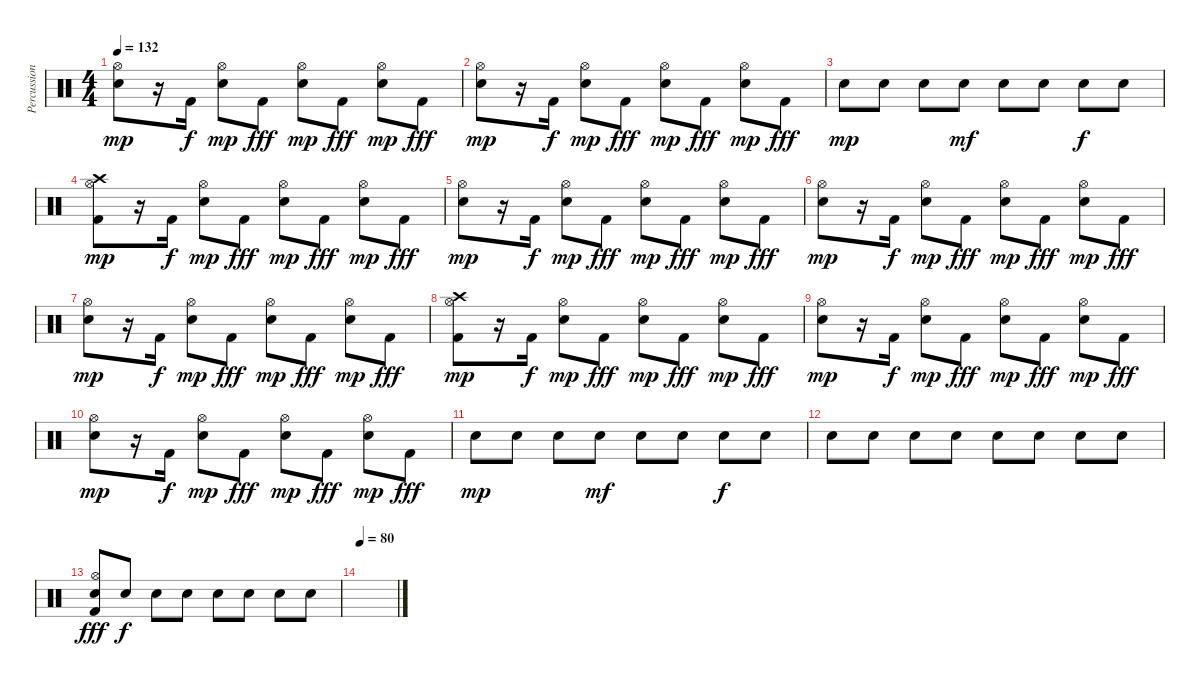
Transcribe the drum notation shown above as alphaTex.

\track ("Percussion" "Percussion") {instrument percussion}
\staff {score}
\articulation defaults
\ts (4 4)
\tempo 132
\clef neutral
\ks c
("Electric Snare (hit)" "Hi-Hat (open)").8{dy mp} r.16 "Kick (hit) 2".16{dy f} ("Electric Snare (hit)" "Hi-Hat (open)").8{dy mp} "Kick (hit) 2".8{dy fff} ("Electric Snare (hit)" "Hi-Hat (open)").8{dy mp} "Kick (hit) 2".8{dy fff} ("Electric Snare (hit)" "Hi-Hat (open)").8{dy mp} "Kick (hit) 2".8{dy fff} |
("Electric Snare (hit)" "Hi-Hat (open)").8{dy mp} r.16 "Kick (hit) 2".16{dy f} ("Electric Snare (hit)" "Hi-Hat (open)").8{dy mp} "Kick (hit) 2".8{dy fff} ("Electric Snare (hit)" "Hi-Hat (open)").8{dy mp} "Kick (hit) 2".8{dy fff} ("Electric Snare (hit)" "Hi-Hat (open)").8{dy mp} "Kick (hit) 2".8{dy fff} |
"Electric Snare (hit)".8{dy mp} "Electric Snare (hit)".8 "Electric Snare (hit)".8 "Electric Snare (hit)".8{dy mf} "Electric Snare (hit)".8 "Electric Snare (hit)".8 "Electric Snare (hit)".8{dy f} "Electric Snare (hit)".8 |
("Kick (hit) 2" "Hi-Hat (open)" "Crash high (hit)").8{dy mp} r.16 "Kick (hit) 2".16{dy f} ("Electric Snare (hit)" "Hi-Hat (open)").8{dy mp} "Kick (hit) 2".8{dy fff} ("Electric Snare (hit)" "Hi-Hat (open)").8{dy mp} "Kick (hit) 2".8{dy fff} ("Electric Snare (hit)" "Hi-Hat (open)").8{dy mp} "Kick (hit) 2".8{dy fff} |
("Electric Snare (hit)" "Hi-Hat (open)").8{dy mp} r.16 "Kick (hit) 2".16{dy f} ("Electric Snare (hit)" "Hi-Hat (open)").8{dy mp} "Kick (hit) 2".8{dy fff} ("Electric Snare (hit)" "Hi-Hat (open)").8{dy mp} "Kick (hit) 2".8{dy fff} ("Electric Snare (hit)" "Hi-Hat (open)").8{dy mp} "Kick (hit) 2".8{dy fff} |
("Electric Snare (hit)" "Hi-Hat (open)").8{dy mp} r.16 "Kick (hit) 2".16{dy f} ("Electric Snare (hit)" "Hi-Hat (open)").8{dy mp} "Kick (hit) 2".8{dy fff} ("Electric Snare (hit)" "Hi-Hat (open)").8{dy mp} "Kick (hit) 2".8{dy fff} ("Electric Snare (hit)" "Hi-Hat (open)").8{dy mp} "Kick (hit) 2".8{dy fff} |
("Electric Snare (hit)" "Hi-Hat (open)").8{dy mp} r.16 "Kick (hit) 2".16{dy f} ("Electric Snare (hit)" "Hi-Hat (open)").8{dy mp} "Kick (hit) 2".8{dy fff} ("Electric Snare (hit)" "Hi-Hat (open)").8{dy mp} "Kick (hit) 2".8{dy fff} ("Electric Snare (hit)" "Hi-Hat (open)").8{dy mp} "Kick (hit) 2".8{dy fff} |
("Kick (hit) 2" "Hi-Hat (open)" "Crash high (hit)").8{dy mp} r.16 "Kick (hit) 2".16{dy f} ("Electric Snare (hit)" "Hi-Hat (open)").8{dy mp} "Kick (hit) 2".8{dy fff} ("Electric Snare (hit)" "Hi-Hat (open)").8{dy mp} "Kick (hit) 2".8{dy fff} ("Electric Snare (hit)" "Hi-Hat (open)").8{dy mp} "Kick (hit) 2".8{dy fff} |
("Electric Snare (hit)" "Hi-Hat (open)").8{dy mp} r.16 "Kick (hit) 2".16{dy f} ("Electric Snare (hit)" "Hi-Hat (open)").8{dy mp} "Kick (hit) 2".8{dy fff} ("Electric Snare (hit)" "Hi-Hat (open)").8{dy mp} "Kick (hit) 2".8{dy fff} ("Electric Snare (hit)" "Hi-Hat (open)").8{dy mp} "Kick (hit) 2".8{dy fff} |
("Electric Snare (hit)" "Hi-Hat (open)").8{dy mp} r.16 "Kick (hit) 2".16{dy f} ("Electric Snare (hit)" "Hi-Hat (open)").8{dy mp} "Kick (hit) 2".8{dy fff} ("Electric Snare (hit)" "Hi-Hat (open)").8{dy mp} "Kick (hit) 2".8{dy fff} ("Electric Snare (hit)" "Hi-Hat (open)").8{dy mp} "Kick (hit) 2".8{dy fff} |
"Electric Snare (hit)".8{dy mp} "Electric Snare (hit)".8 "Electric Snare (hit)".8 "Electric Snare (hit)".8{dy mf} "Electric Snare (hit)".8 "Electric Snare (hit)".8 "Electric Snare (hit)".8{dy f} "Electric Snare (hit)".8 |
"Electric Snare (hit)".8 "Electric Snare (hit)".8 "Electric Snare (hit)".8 "Electric Snare (hit)".8 "Electric Snare (hit)".8 "Electric Snare (hit)".8 "Electric Snare (hit)".8 "Electric Snare (hit)".8 |
("Hi-Hat (open)" "Electric Snare (hit)" "Kick (hit) 2").8{dy fff} "Electric Snare (hit)".8{dy f} "Electric Snare (hit)".8 "Electric Snare (hit)".8 "Electric Snare (hit)".8 "Electric Snare (hit)".8 "Electric Snare (hit)".8 "Electric Snare (hit)".8 |
\tempo 80
